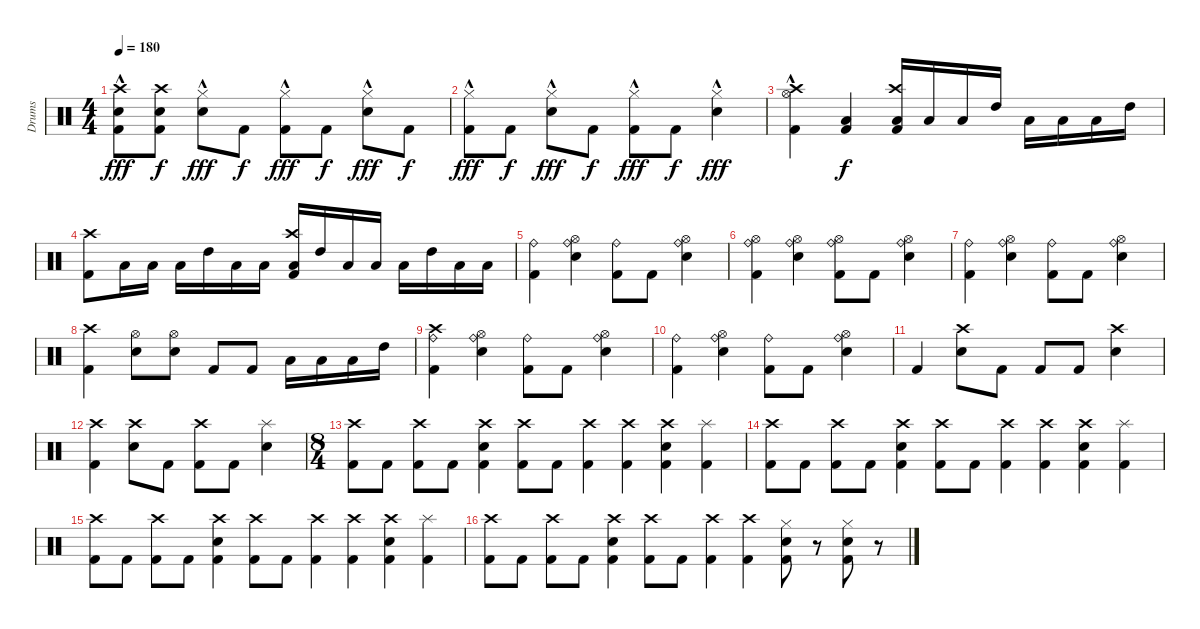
\track ("Drums" "Drums") {instrument percussion}
\staff {score}
\articulation defaults
\ts (4 4)
\tempo 180
\clef neutral
\ks c
("Kick (hit) 2" "Electric Snare (hit)" "Crash high (hit)"{hac}).8{dy fff} ("Kick (hit) 2" "Electric Snare (hit)" "Crash high (hit)").8{dy f} ("Electric Snare (hit)" "Hi-Hat (closed)"{hac}).8{dy fff} "Kick (hit) 2".8{dy f} ("Kick (hit) 2" "Hi-Hat (closed)"{hac}).8{dy fff} "Kick (hit) 2".8{dy f} ("Electric Snare (hit)" "Hi-Hat (closed)"{hac}).8{dy fff} "Kick (hit) 2".8{dy f} |
("Kick (hit) 2" "Hi-Hat (closed)"{hac}).8{dy fff} "Kick (hit) 2".8{dy f} ("Electric Snare (hit)" "Hi-Hat (closed)"{hac}).8{dy fff} "Kick (hit) 2".8{dy f} ("Kick (hit) 2" "Hi-Hat (closed)"{hac}).8{dy fff} "Kick (hit) 2".8{dy f} ("Electric Snare (hit)" "Hi-Hat (closed)"{hac}).4{dy fff} |
("Kick (hit) 2" "Hi-Hat (open)"{hac} "Crash high (hit)").4 ("Kick (hit) 2" "Low Tom (hit)").4{dy f} ("Kick (hit) 2" "Low Floor Tom (hit)" "Crash high (hit)").16 "Low Floor Tom (hit)".16 "Low Tom (hit)".16 "High Tom (hit)".16 "Low Floor Tom (hit)".16 "Low Floor Tom (hit)".16 "Low Tom (hit)".16 "High Tom (hit)".16 |
("Kick (hit) 2" "Crash high (hit)").8 "Low Floor Tom (hit)".16 "Low Floor Tom (hit)".16 "Low Tom (hit)".16 "High Tom (hit)".16 "Low Floor Tom (hit)".16 "Low Floor Tom (hit)".16 ("Kick (hit) 2" "Low Tom (hit)" "Crash high (hit)").16 "High Tom (hit)".16 "Low Floor Tom (hit)".16 "Low Floor Tom (hit)".16 "Low Tom (hit)".16 "High Tom (hit)".16 "Low Floor Tom (hit)".16 "Low Floor Tom (hit)".16 |
("Kick (hit) 2" "Ride (bell)").4 ("Hi-Hat (open)" "Electric Snare (hit)" "Ride (bell)").4 ("Kick (hit) 2" "Ride (bell)").8 "Kick (hit) 2".8 ("Hi-Hat (open)" "Electric Snare (hit)" "Ride (bell)").4 |
("Kick (hit) 2" "Hi-Hat (open)" "Ride (bell)").4 ("Hi-Hat (open)" "Electric Snare (hit)" "Ride (bell)").4 ("Kick (hit) 2" "Hi-Hat (open)" "Ride (bell)").8 "Kick (hit) 2".8 ("Hi-Hat (open)" "Electric Snare (hit)" "Ride (bell)").4 |
("Kick (hit) 2" "Ride (bell)").4 ("Hi-Hat (open)" "Electric Snare (hit)" "Ride (bell)").4 ("Kick (hit) 2" "Ride (bell)").8 "Kick (hit) 2".8 ("Hi-Hat (open)" "Electric Snare (hit)" "Ride (bell)").4 |
("Kick (hit) 2" "Crash high (hit)").4 ("Electric Snare (hit)" "Hi-Hat (open)").8 ("Electric Snare (hit)" "Hi-Hat (open)").8 "Kick (hit) 2".8 "Kick (hit) 2".8 "Low Floor Tom (hit)".16 "Low Floor Tom (hit)".16 "Low Tom (hit)".16 "High Tom (hit)".16 |
("Kick (hit) 2" "Ride (bell)" "Crash high (hit)").4 ("Hi-Hat (open)" "Electric Snare (hit)" "Ride (bell)").4 ("Kick (hit) 2" "Ride (bell)").8 "Kick (hit) 2".8 ("Hi-Hat (open)" "Electric Snare (hit)" "Ride (bell)").4 |
("Kick (hit) 2" "Ride (bell)").4 ("Hi-Hat (open)" "Electric Snare (hit)" "Ride (bell)").4 ("Kick (hit) 2" "Ride (bell)").8 "Kick (hit) 2".8 ("Hi-Hat (open)" "Electric Snare (hit)" "Ride (bell)").4 |
"Kick (hit) 2".4 ("Electric Snare (hit)" "Crash high (hit)").8 "Kick (hit) 2".8 "Kick (hit) 2".8 "Kick (hit) 2".8 ("Electric Snare (hit)" "Crash high (hit)").4 |
("Kick (hit) 2" "Crash high (hit)").4 ("Electric Snare (hit)" "Crash high (hit)").8 "Kick (hit) 2".8 ("Kick (hit) 2" "Crash high (hit)").8 "Kick (hit) 2".8 ("Electric Snare (hit)" "Splash (hit)").4 |
\ts (8 4)
("Kick (hit) 2" "Crash high (hit)").8 "Kick (hit) 2".8 ("Kick (hit) 2" "Crash high (hit)").8 "Kick (hit) 2".8 ("Kick (hit) 2" "Electric Snare (hit)" "Crash high (hit)").4 ("Kick (hit) 2" "Crash high (hit)").8 "Kick (hit) 2".8 ("Kick (hit) 2" "Crash high (hit)").4 ("Kick (hit) 2" "Crash high (hit)").4 ("Kick (hit) 2" "Electric Snare (hit)" "Crash high (hit)").4 ("Kick (hit) 2" "Splash (hit)").4 |
("Kick (hit) 2" "Crash high (hit)").8 "Kick (hit) 2".8 ("Kick (hit) 2" "Crash high (hit)").8 "Kick (hit) 2".8 ("Kick (hit) 2" "Electric Snare (hit)" "Crash high (hit)").4 ("Kick (hit) 2" "Crash high (hit)").8 "Kick (hit) 2".8 ("Kick (hit) 2" "Crash high (hit)").4 ("Kick (hit) 2" "Crash high (hit)").4 ("Kick (hit) 2" "Electric Snare (hit)" "Crash high (hit)").4 ("Kick (hit) 2" "Splash (hit)").4 |
("Kick (hit) 2" "Crash high (hit)").8 "Kick (hit) 2".8 ("Kick (hit) 2" "Crash high (hit)").8 "Kick (hit) 2".8 ("Kick (hit) 2" "Electric Snare (hit)" "Crash high (hit)").4 ("Kick (hit) 2" "Crash high (hit)").8 "Kick (hit) 2".8 ("Kick (hit) 2" "Crash high (hit)").4 ("Kick (hit) 2" "Crash high (hit)").4 ("Kick (hit) 2" "Electric Snare (hit)" "Crash high (hit)").4 ("Kick (hit) 2" "Splash (hit)").4 |
("Kick (hit) 2" "Crash high (hit)").8 "Kick (hit) 2".8 ("Kick (hit) 2" "Crash high (hit)").8 "Kick (hit) 2".8 ("Kick (hit) 2" "Electric Snare (hit)" "Crash high (hit)").4 ("Kick (hit) 2" "Crash high (hit)").8 "Kick (hit) 2".8 ("Kick (hit) 2" "Crash high (hit)").4 ("Kick (hit) 2" "Crash high (hit)").4 ("Kick (hit) 2" "Electric Snare (hit)" "Hi-Hat (closed)").8 r.8 ("Kick (hit) 2" "Electric Snare (hit)" "Hi-Hat (closed)").8 r.8
